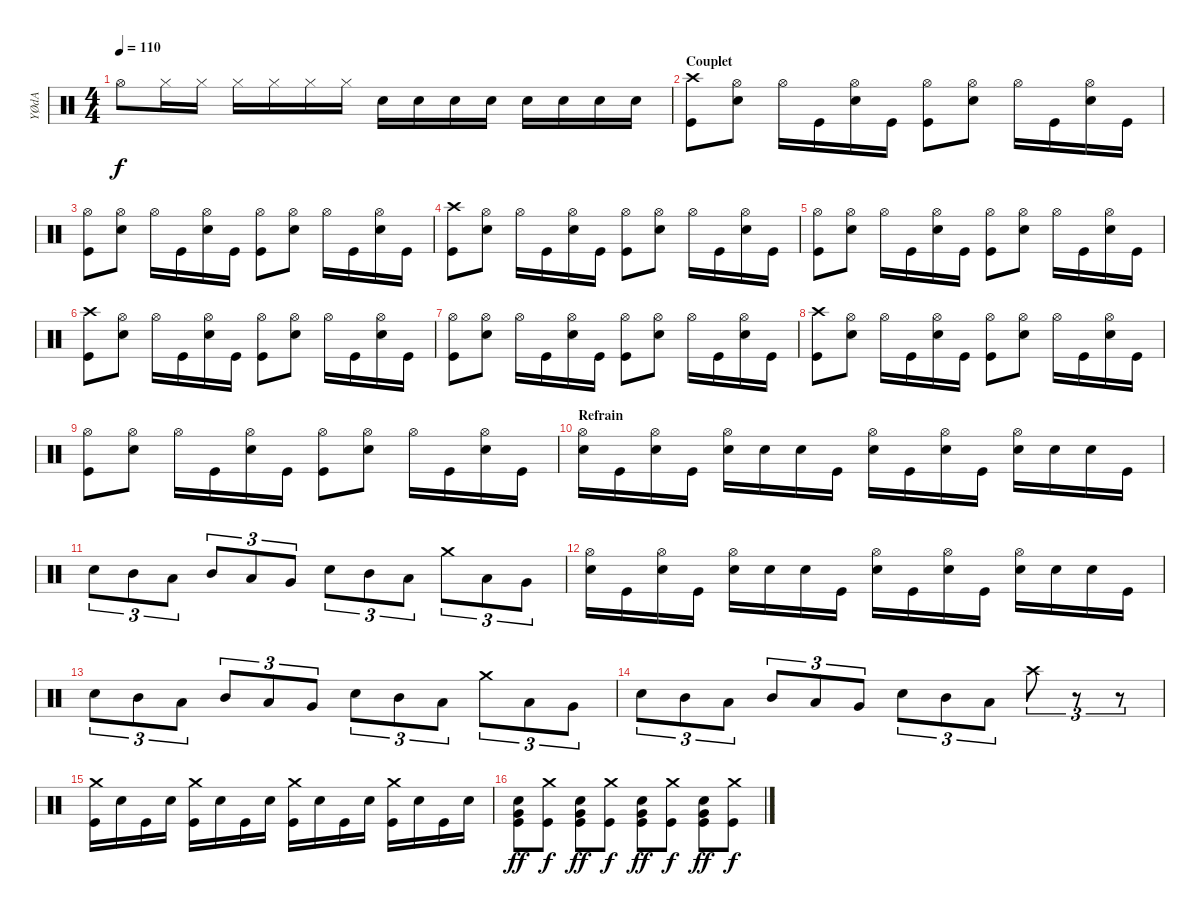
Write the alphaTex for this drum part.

\track ("YØdA" "YØdA") {instrument percussion}
\staff {score}
\articulation defaults
\ts (4 4)
\tempo 110
\clef neutral
\ks c "Hi-Hat (open)".8{dy f} "Hi-Hat (closed)".16 "Hi-Hat (closed)".16 "Hi-Hat (closed)".16 "Hi-Hat (closed)".16 "Hi-Hat (closed)".16 "Hi-Hat (closed)".16 "Electric Snare (hit)".16 "Electric Snare (hit)".16 "Electric Snare (hit)".16 "Electric Snare (hit)".16 "Electric Snare (hit)".16 "Electric Snare (hit)".16 "Electric Snare (hit)".16 "Electric Snare (hit)".16
|
\section ("" "Couplet")
("Crash high (hit)" "Kick (hit)").8 ("Hi-Hat (open)" "Electric Snare (hit)").8 "Hi-Hat (open)".16 "Kick (hit)".16 ("Hi-Hat (open)" "Electric Snare (hit)").16 "Kick (hit)".16 ("Hi-Hat (open)" "Kick (hit)").8 ("Hi-Hat (open)" "Electric Snare (hit)").8 "Hi-Hat (open)".16 "Kick (hit)".16 ("Hi-Hat (open)" "Electric Snare (hit)").16 "Kick (hit)".16 |
("Hi-Hat (open)" "Kick (hit)").8 ("Hi-Hat (open)" "Electric Snare (hit)").8 "Hi-Hat (open)".16 "Kick (hit)".16 ("Hi-Hat (open)" "Electric Snare (hit)").16 "Kick (hit)".16 ("Hi-Hat (open)" "Kick (hit)").8 ("Hi-Hat (open)" "Electric Snare (hit)").8 "Hi-Hat (open)".16 "Kick (hit)".16 ("Hi-Hat (open)" "Electric Snare (hit)").16 "Kick (hit)".16 |
("Crash high (hit)" "Kick (hit)").8 ("Hi-Hat (open)" "Electric Snare (hit)").8 "Hi-Hat (open)".16 "Kick (hit)".16 ("Hi-Hat (open)" "Electric Snare (hit)").16 "Kick (hit)".16 ("Hi-Hat (open)" "Kick (hit)").8 ("Hi-Hat (open)" "Electric Snare (hit)").8 "Hi-Hat (open)".16 "Kick (hit)".16 ("Hi-Hat (open)" "Electric Snare (hit)").16 "Kick (hit)".16 |
("Hi-Hat (open)" "Kick (hit)").8 ("Hi-Hat (open)" "Electric Snare (hit)").8 "Hi-Hat (open)".16 "Kick (hit)".16 ("Hi-Hat (open)" "Electric Snare (hit)").16 "Kick (hit)".16 ("Hi-Hat (open)" "Kick (hit)").8 ("Hi-Hat (open)" "Electric Snare (hit)").8 "Hi-Hat (open)".16 "Kick (hit)".16 ("Hi-Hat (open)" "Electric Snare (hit)").16 "Kick (hit)".16 |
("Crash high (hit)" "Kick (hit)").8 ("Hi-Hat (open)" "Electric Snare (hit)").8 "Hi-Hat (open)".16 "Kick (hit)".16 ("Hi-Hat (open)" "Electric Snare (hit)").16 "Kick (hit)".16 ("Hi-Hat (open)" "Kick (hit)").8 ("Hi-Hat (open)" "Electric Snare (hit)").8 "Hi-Hat (open)".16 "Kick (hit)".16 ("Hi-Hat (open)" "Electric Snare (hit)").16 "Kick (hit)".16 |
("Hi-Hat (open)" "Kick (hit)").8 ("Hi-Hat (open)" "Electric Snare (hit)").8 "Hi-Hat (open)".16 "Kick (hit)".16 ("Hi-Hat (open)" "Electric Snare (hit)").16 "Kick (hit)".16 ("Hi-Hat (open)" "Kick (hit)").8 ("Hi-Hat (open)" "Electric Snare (hit)").8 "Hi-Hat (open)".16 "Kick (hit)".16 ("Hi-Hat (open)" "Electric Snare (hit)").16 "Kick (hit)".16 |
("Crash high (hit)" "Kick (hit)").8 ("Hi-Hat (open)" "Electric Snare (hit)").8 "Hi-Hat (open)".16 "Kick (hit)".16 ("Hi-Hat (open)" "Electric Snare (hit)").16 "Kick (hit)".16 ("Hi-Hat (open)" "Kick (hit)").8 ("Hi-Hat (open)" "Electric Snare (hit)").8 "Hi-Hat (open)".16 "Kick (hit)".16 ("Hi-Hat (open)" "Electric Snare (hit)").16 "Kick (hit)".16 |
("Hi-Hat (open)" "Kick (hit)").8 ("Hi-Hat (open)" "Electric Snare (hit)").8 "Hi-Hat (open)".16 "Kick (hit)".16 ("Hi-Hat (open)" "Electric Snare (hit)").16 "Kick (hit)".16 ("Hi-Hat (open)" "Kick (hit)").8 ("Hi-Hat (open)" "Electric Snare (hit)").8 "Hi-Hat (open)".16 "Kick (hit)".16 ("Hi-Hat (open)" "Electric Snare (hit)").16 "Kick (hit)".16 |
\section ("" "Refrain")
("Hi-Hat (open)" "Electric Snare (hit)").16 "Kick (hit)".16 ("Hi-Hat (open)" "Electric Snare (hit)").16 "Kick (hit)".16 ("Hi-Hat (open)" "Electric Snare (hit)").16 "Electric Snare (hit)".16 "Electric Snare (hit)".16 "Kick (hit)".16 ("Hi-Hat (open)" "Electric Snare (hit)").16 "Kick (hit)".16 ("Hi-Hat (open)" "Electric Snare (hit)").16 "Kick (hit)".16 ("Hi-Hat (open)" "Electric Snare (hit)").16 "Electric Snare (hit)".16 "Electric Snare (hit)".16 "Kick (hit)".16 |
"Electric Snare (hit)".8{tu (3 2)} "Mid Tom (hit)".8{tu (3 2)} "Low Tom (hit)".8{tu (3 2)} "Mid Tom (hit)".8{tu (3 2)} "Low Tom (hit)".8{tu (3 2)} "Very Low Tom (hit)".8{tu (3 2)} "Electric Snare (hit)".8{tu (3 2)} "Mid Tom (hit)".8{tu (3 2)} "Low Tom (hit)".8{tu (3 2)} "Crash medium (hit)".8{tu (3 2)} "Low Tom (hit)".8{tu (3 2)} "Very Low Tom (hit)".8{tu (3 2)} |
("Hi-Hat (open)" "Electric Snare (hit)").16 "Kick (hit)".16 ("Hi-Hat (open)" "Electric Snare (hit)").16 "Kick (hit)".16 ("Hi-Hat (open)" "Electric Snare (hit)").16 "Electric Snare (hit)".16 "Electric Snare (hit)".16 "Kick (hit)".16 ("Hi-Hat (open)" "Electric Snare (hit)").16 "Kick (hit)".16 ("Hi-Hat (open)" "Electric Snare (hit)").16 "Kick (hit)".16 ("Hi-Hat (open)" "Electric Snare (hit)").16 "Electric Snare (hit)".16 "Electric Snare (hit)".16 "Kick (hit)".16 |
"Electric Snare (hit)".8{tu (3 2)} "Mid Tom (hit)".8{tu (3 2)} "Low Tom (hit)".8{tu (3 2)} "Mid Tom (hit)".8{tu (3 2)} "Low Tom (hit)".8{tu (3 2)} "Very Low Tom (hit)".8{tu (3 2)} "Electric Snare (hit)".8{tu (3 2)} "Mid Tom (hit)".8{tu (3 2)} "Low Tom (hit)".8{tu (3 2)} "Crash medium (hit)".8{tu (3 2)} "Low Tom (hit)".8{tu (3 2)} "Very Low Tom (hit)".8{tu (3 2)} |
"Electric Snare (hit)".8{tu (3 2)} "Mid Tom (hit)".8{tu (3 2)} "Low Tom (hit)".8{tu (3 2)} "Mid Tom (hit)".8{tu (3 2)} "Low Tom (hit)".8{tu (3 2)} "Very Low Tom (hit)".8{tu (3 2)} "Electric Snare (hit)".8{tu (3 2)} "Mid Tom (hit)".8{tu (3 2)} "Low Tom (hit)".8{tu (3 2)} "Crash high (hit)".8{tu (3 2)} r.8{tu (3 2)} r.8{tu (3 2)} |
("Crash medium (hit)" "Kick (hit)").16 "Electric Snare (hit)".16 "Kick (hit)".16 "Electric Snare (hit)".16 ("Crash medium (hit)" "Kick (hit)").16 "Electric Snare (hit)".16 "Kick (hit)".16 "Electric Snare (hit)".16 ("Crash medium (hit)" "Kick (hit)").16 "Electric Snare (hit)".16 "Kick (hit)".16 "Electric Snare (hit)".16 ("Crash medium (hit)" "Kick (hit)").16 "Electric Snare (hit)".16 "Kick (hit)".16 "Electric Snare (hit)".16 |
("Very Low Tom (hit)" "Electric Snare (hit)" "Kick (hit)").8{dy ff} ("Crash medium (hit)" "Kick (hit)").8{dy f} ("Very Low Tom (hit)" "Electric Snare (hit)" "Kick (hit)").8{dy ff} ("Crash medium (hit)" "Kick (hit)").8{dy f} ("Very Low Tom (hit)" "Electric Snare (hit)" "Kick (hit)").8{dy ff} ("Crash medium (hit)" "Kick (hit)").8{dy f} ("Very Low Tom (hit)" "Electric Snare (hit)" "Kick (hit)").8{dy ff} ("Crash medium (hit)" "Kick (hit)").8{dy f}
